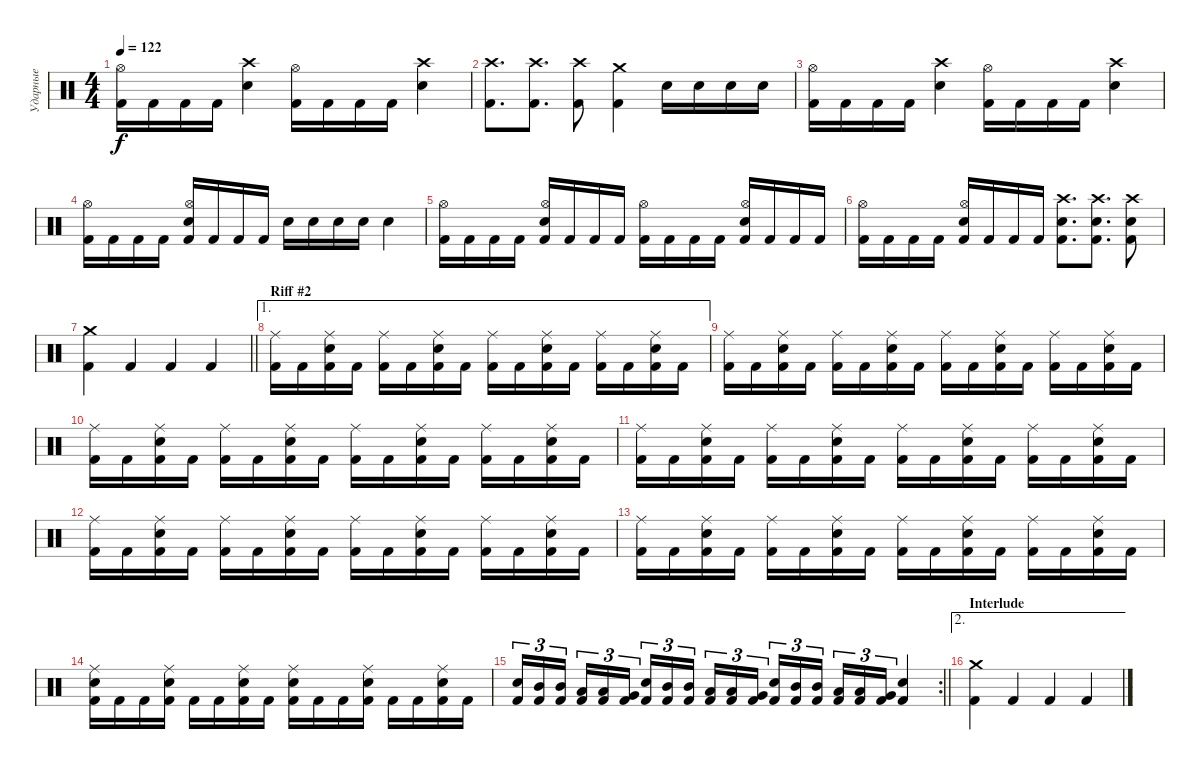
\track ("Ударные" "Ударные") {instrument percussion}
\staff {score}
\articulation defaults
\ts (4 4)
\tempo 122
\clef neutral
\ks c
("Kick (hit) 2" "Hi-Hat (open)").16{dy f} "Kick (hit) 2".16 "Kick (hit) 2".16 "Kick (hit) 2".16 ("Electric Snare (hit)" "Crash high (hit)").4 ("Kick (hit) 2" "Hi-Hat (open)").16 "Kick (hit) 2".16 "Kick (hit) 2".16 "Kick (hit) 2".16 ("Electric Snare (hit)" "Crash high (hit)").4 |
("Kick (hit) 2" "Crash high (hit)").8{d} ("Kick (hit) 2" "Crash high (hit)").8{d} ("Kick (hit) 2" "Crash high (hit)").8 ("Kick (hit) 2" "Crash medium (hit)").4 "Electric Snare (hit)".16 "Electric Snare (hit)".16 "Electric Snare (hit)".16 "Electric Snare (hit)".16 |
("Kick (hit) 2" "Hi-Hat (open)").16 "Kick (hit) 2".16 "Kick (hit) 2".16 "Kick (hit) 2".16 ("Electric Snare (hit)" "Crash high (hit)").4 ("Kick (hit) 2" "Hi-Hat (open)").16 "Kick (hit) 2".16 "Kick (hit) 2".16 "Kick (hit) 2".16 ("Electric Snare (hit)" "Crash high (hit)").4 |
("Kick (hit) 2" "Hi-Hat (open)").16 "Kick (hit) 2".16 "Kick (hit) 2".16 "Kick (hit) 2".16 ("Kick (hit) 2" "Electric Snare (hit)" "Hi-Hat (open)").16 "Kick (hit) 2".16 "Kick (hit) 2".16 "Kick (hit) 2".16 "Electric Snare (hit)".16 "Electric Snare (hit)".16 "Electric Snare (hit)".16 "Electric Snare (hit)".16 "Electric Snare (hit)".4 |
("Kick (hit) 2" "Hi-Hat (open)").16 "Kick (hit) 2".16 "Kick (hit) 2".16 "Kick (hit) 2".16 ("Kick (hit) 2" "Electric Snare (hit)" "Hi-Hat (open)").16 "Kick (hit) 2".16 "Kick (hit) 2".16 "Kick (hit) 2".16 ("Kick (hit) 2" "Hi-Hat (open)").16 "Kick (hit) 2".16 "Kick (hit) 2".16 "Kick (hit) 2".16 ("Kick (hit) 2" "Electric Snare (hit)" "Hi-Hat (open)").16 "Kick (hit) 2".16 "Kick (hit) 2".16 "Kick (hit) 2".16 |
("Kick (hit) 2" "Hi-Hat (open)").16 "Kick (hit) 2".16 "Kick (hit) 2".16 "Kick (hit) 2".16 ("Kick (hit) 2" "Electric Snare (hit)" "Hi-Hat (open)").16 "Kick (hit) 2".16 "Kick (hit) 2".16 "Kick (hit) 2".16 ("Kick (hit) 2" "Electric Snare (hit)" "Crash high (hit)").8{d} ("Kick (hit) 2" "Electric Snare (hit)" "Crash high (hit)").8{d} ("Kick (hit) 2" "Electric Snare (hit)" "Crash high (hit)").8 |
\barLineRight lightlight
("Kick (hit) 2" "Crash medium (hit)").4 "Kick (hit) 2".4 "Kick (hit) 2".4 "Kick (hit) 2".4 |
\ae 1
\section ("" "Riff #2")
("Kick (hit) 2" "Ride (middle)").16 "Kick (hit) 2".16 ("Kick (hit) 2" "Electric Snare (hit)" "Ride (middle)").16 "Kick (hit) 2".16 ("Kick (hit) 2" "Ride (middle)").16 "Kick (hit) 2".16 ("Kick (hit) 2" "Electric Snare (hit)" "Ride (middle)").16 "Kick (hit) 2".16 ("Kick (hit) 2" "Ride (middle)").16 "Kick (hit) 2".16 ("Kick (hit) 2" "Electric Snare (hit)" "Ride (middle)").16 "Kick (hit) 2".16 ("Kick (hit) 2" "Ride (middle)").16 "Kick (hit) 2".16 ("Kick (hit) 2" "Electric Snare (hit)" "Ride (middle)").16 "Kick (hit) 2".16 |
("Kick (hit) 2" "Ride (middle)").16 "Kick (hit) 2".16 ("Kick (hit) 2" "Electric Snare (hit)" "Ride (middle)").16 "Kick (hit) 2".16 ("Kick (hit) 2" "Ride (middle)").16 "Kick (hit) 2".16 ("Kick (hit) 2" "Electric Snare (hit)" "Ride (middle)").16 "Kick (hit) 2".16 ("Kick (hit) 2" "Ride (middle)").16 "Kick (hit) 2".16 ("Kick (hit) 2" "Electric Snare (hit)" "Ride (middle)").16 "Kick (hit) 2".16 ("Kick (hit) 2" "Ride (middle)").16 "Kick (hit) 2".16 ("Kick (hit) 2" "Electric Snare (hit)" "Ride (middle)").16 "Kick (hit) 2".16 |
("Kick (hit) 2" "Ride (middle)").16 "Kick (hit) 2".16 ("Kick (hit) 2" "Electric Snare (hit)" "Ride (middle)").16 "Kick (hit) 2".16 ("Kick (hit) 2" "Ride (middle)").16 "Kick (hit) 2".16 ("Kick (hit) 2" "Electric Snare (hit)" "Ride (middle)").16 "Kick (hit) 2".16 ("Kick (hit) 2" "Ride (middle)").16 "Kick (hit) 2".16 ("Kick (hit) 2" "Electric Snare (hit)" "Ride (middle)").16 "Kick (hit) 2".16 ("Kick (hit) 2" "Ride (middle)").16 "Kick (hit) 2".16 ("Kick (hit) 2" "Electric Snare (hit)" "Ride (middle)").16 "Kick (hit) 2".16 |
("Kick (hit) 2" "Ride (middle)").16 "Kick (hit) 2".16 ("Kick (hit) 2" "Electric Snare (hit)" "Ride (middle)").16 "Kick (hit) 2".16 ("Kick (hit) 2" "Ride (middle)").16 "Kick (hit) 2".16 ("Kick (hit) 2" "Electric Snare (hit)" "Ride (middle)").16 "Kick (hit) 2".16 ("Kick (hit) 2" "Ride (middle)").16 "Kick (hit) 2".16 ("Kick (hit) 2" "Electric Snare (hit)" "Ride (middle)").16 "Kick (hit) 2".16 ("Kick (hit) 2" "Ride (middle)").16 "Kick (hit) 2".16 ("Kick (hit) 2" "Electric Snare (hit)" "Ride (middle)").16 "Kick (hit) 2".16 |
("Kick (hit) 2" "Ride (middle)").16 "Kick (hit) 2".16 ("Kick (hit) 2" "Electric Snare (hit)" "Ride (middle)").16 "Kick (hit) 2".16 ("Kick (hit) 2" "Ride (middle)").16 "Kick (hit) 2".16 ("Kick (hit) 2" "Electric Snare (hit)" "Ride (middle)").16 "Kick (hit) 2".16 ("Kick (hit) 2" "Ride (middle)").16 "Kick (hit) 2".16 ("Kick (hit) 2" "Electric Snare (hit)" "Ride (middle)").16 "Kick (hit) 2".16 ("Kick (hit) 2" "Ride (middle)").16 "Kick (hit) 2".16 ("Kick (hit) 2" "Electric Snare (hit)" "Ride (middle)").16 "Kick (hit) 2".16 |
("Kick (hit) 2" "Ride (middle)").16 "Kick (hit) 2".16 ("Kick (hit) 2" "Electric Snare (hit)" "Ride (middle)").16 "Kick (hit) 2".16 ("Kick (hit) 2" "Ride (middle)").16 "Kick (hit) 2".16 ("Kick (hit) 2" "Electric Snare (hit)" "Ride (middle)").16 "Kick (hit) 2".16 ("Kick (hit) 2" "Ride (middle)").16 "Kick (hit) 2".16 ("Kick (hit) 2" "Electric Snare (hit)" "Ride (middle)").16 "Kick (hit) 2".16 ("Kick (hit) 2" "Ride (middle)").16 "Kick (hit) 2".16 ("Kick (hit) 2" "Electric Snare (hit)" "Ride (middle)").16 "Kick (hit) 2".16 |
("Kick (hit) 2" "Electric Snare (hit)" "Ride (middle)").16 "Kick (hit) 2".16 "Kick (hit) 2".16 ("Kick (hit) 2" "Electric Snare (hit)" "Ride (middle)").16 "Kick (hit) 2".16 "Kick (hit) 2".16 ("Kick (hit) 2" "Electric Snare (hit)" "Ride (middle)").16 "Kick (hit) 2".16 ("Kick (hit) 2" "Electric Snare (hit)" "Ride (middle)").16 "Kick (hit) 2".16 "Kick (hit) 2".16 ("Kick (hit) 2" "Electric Snare (hit)" "Ride (middle)").16 "Kick (hit) 2".16 "Kick (hit) 2".16 ("Kick (hit) 2" "Electric Snare (hit)" "Ride (middle)").16 "Kick (hit) 2".16 |
\rc 2
\barLineRight lightlight
("Kick (hit) 2" "Electric Snare (hit)").16{tu (3 2)} ("Kick (hit) 2" "Mid Tom (hit)").16{tu (3 2)} ("Kick (hit) 2" "Mid Tom (hit)").16{tu (3 2) beam splitsecondary} ("Kick (hit) 2" "Low Tom (hit)").16{tu (3 2)} ("Kick (hit) 2" "Low Tom (hit)").16{tu (3 2)} ("Kick (hit) 2" "Very Low Tom (hit)").16{tu (3 2)} ("Kick (hit) 2" "Electric Snare (hit)").16{tu (3 2)} ("Kick (hit) 2" "Mid Tom (hit)").16{tu (3 2)} ("Kick (hit) 2" "Mid Tom (hit)").16{tu (3 2) beam splitsecondary} ("Kick (hit) 2" "Low Tom (hit)").16{tu (3 2)} ("Kick (hit) 2" "Low Tom (hit)").16{tu (3 2)} ("Kick (hit) 2" "Very Low Tom (hit)").16{tu (3 2)} ("Kick (hit) 2" "Electric Snare (hit)").16{tu (3 2)} ("Kick (hit) 2" "Mid Tom (hit)").16{tu (3 2)} ("Kick (hit) 2" "Mid Tom (hit)").16{tu (3 2) beam splitsecondary} ("Kick (hit) 2" "Low Tom (hit)").16{tu (3 2)} ("Kick (hit) 2" "Low Tom (hit)").16{tu (3 2)} ("Kick (hit) 2" "Very Low Tom (hit)").16{tu (3 2)} ("Kick (hit) 2" "Electric Snare (hit)").4 |
\ae 2
\section ("" "Interlude")
("Kick (hit) 2" "Crash medium (hit)").4 "Kick (hit) 2".4 "Kick (hit) 2".4 "Kick (hit) 2".4
